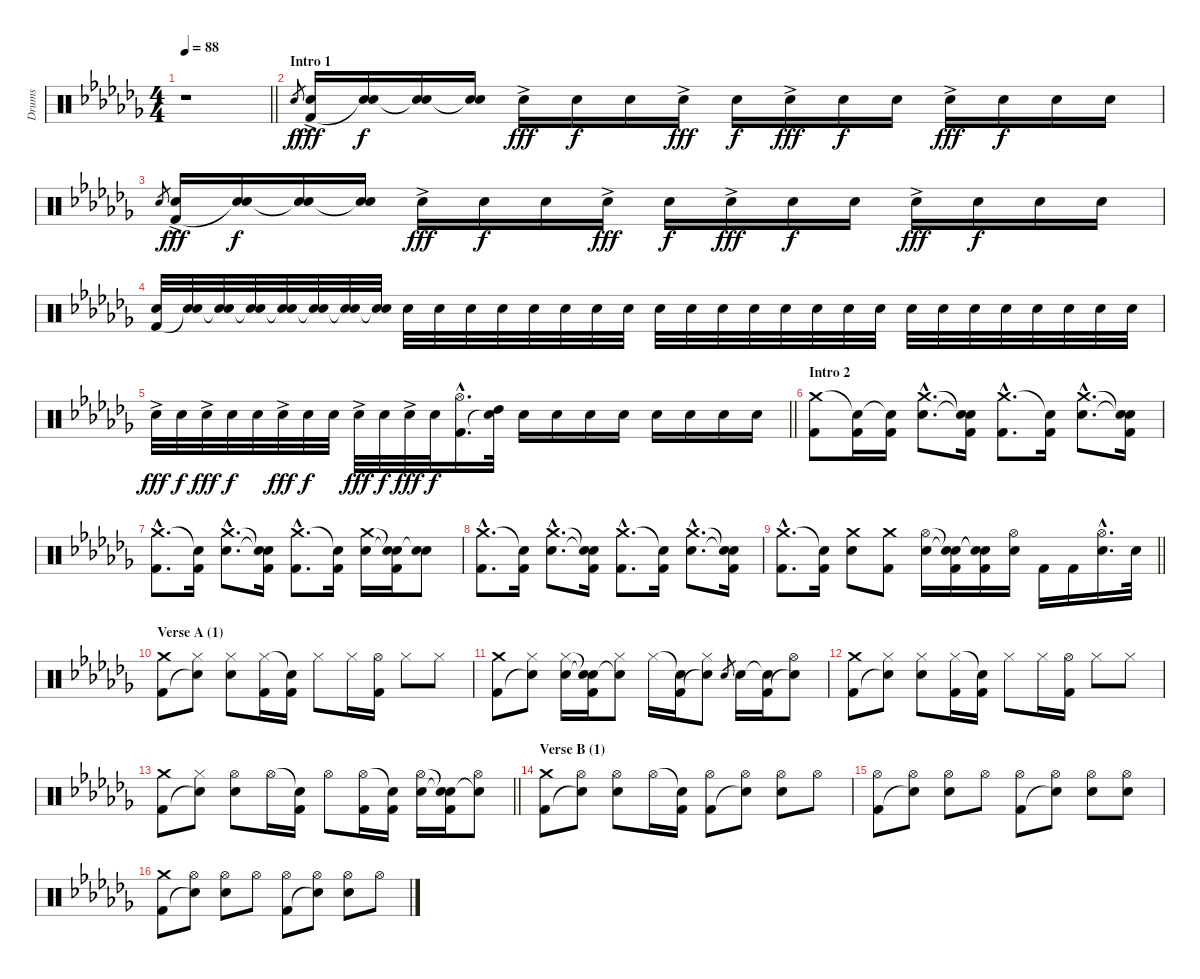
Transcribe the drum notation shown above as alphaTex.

\track ("Drums" "Drums") {instrument percussion}
\staff {score}
\articulation defaults
\ts (4 4)
\tempo 88
\clef neutral
\barLineRight lightlight
\ks abminor
r.1{dy f} |
\section ("" "Intro 1")
"Electric Snare (hit)".8{gr} ("Electric Snare (hit)"{ac} "Kick (hit) 2").16{dy fff} ("Electric Snare (hit)" "Snare (hit)"{t}).16{dy f} ("Electric Snare (hit)" "Snare (hit)"{t}).16 ("Electric Snare (hit)" "Snare (hit)"{t}).16 "Electric Snare (hit)"{ac}.16{dy fff} "Electric Snare (hit)".16{dy f} "Electric Snare (hit)".16 "Electric Snare (hit)"{ac}.16{dy fff} "Electric Snare (hit)".16{dy f} "Electric Snare (hit)"{ac}.16{dy fff} "Electric Snare (hit)".16{dy f} "Electric Snare (hit)".16 "Electric Snare (hit)"{ac}.16{dy fff} "Electric Snare (hit)".16{dy f} "Electric Snare (hit)".16 "Electric Snare (hit)".16 |
"Electric Snare (hit)".8{gr} ("Electric Snare (hit)"{ac} "Kick (hit) 2").16{dy fff} ("Electric Snare (hit)" "Snare (hit)"{t}).16{dy f} ("Electric Snare (hit)" "Snare (hit)"{t}).16 ("Electric Snare (hit)" "Snare (hit)"{t}).16 "Electric Snare (hit)"{ac}.16{dy fff} "Electric Snare (hit)".16{dy f} "Electric Snare (hit)".16 "Electric Snare (hit)"{ac}.16{dy fff} "Electric Snare (hit)".16{dy f} "Electric Snare (hit)"{ac}.16{dy fff} "Electric Snare (hit)".16{dy f} "Electric Snare (hit)".16 "Electric Snare (hit)"{ac}.16{dy fff} "Electric Snare (hit)".16{dy f} "Electric Snare (hit)".16 "Electric Snare (hit)".16 |
("Electric Snare (hit)" "Kick (hit) 2").32 ("Electric Snare (hit)" "Snare (hit)"{t}).32 ("Electric Snare (hit)" "Snare (hit)"{t}).32 ("Electric Snare (hit)" "Snare (hit)"{t}).32 ("Electric Snare (hit)" "Snare (hit)"{t}).32 ("Electric Snare (hit)" "Snare (hit)"{t}).32 ("Electric Snare (hit)" "Snare (hit)"{t}).32 ("Electric Snare (hit)" "Snare (hit)"{t}).32 "Electric Snare (hit)".32 "Electric Snare (hit)".32 "Electric Snare (hit)".32 "Electric Snare (hit)".32 "Electric Snare (hit)".32 "Electric Snare (hit)".32 "Electric Snare (hit)".32 "Electric Snare (hit)".32 "Electric Snare (hit)".32 "Electric Snare (hit)".32 "Electric Snare (hit)".32 "Electric Snare (hit)".32 "Electric Snare (hit)".32 "Electric Snare (hit)".32 "Electric Snare (hit)".32 "Electric Snare (hit)".32 "Electric Snare (hit)".32 "Electric Snare (hit)".32 "Electric Snare (hit)".32 "Electric Snare (hit)".32 "Electric Snare (hit)".32 "Electric Snare (hit)".32 "Electric Snare (hit)".32 "Electric Snare (hit)".32 |
\barLineRight lightlight "Electric Snare (hit)"{ac}.32{dy fff} "Electric Snare (hit)".32{dy f} "Electric Snare (hit)"{ac}.32{dy fff} "Electric Snare (hit)".32{dy f} "Electric Snare (hit)".32 "Electric Snare (hit)"{ac}.32{dy fff} "Electric Snare (hit)".32{dy f} "Electric Snare (hit)".32 "Electric Snare (hit)"{ac}.32{dy fff} "Electric Snare (hit)".32{dy f} "Electric Snare (hit)"{ac}.32{dy fff} "Electric Snare (hit)".32{dy f}
("Hi-Hat (open)"{hac} "Kick (hit) 2"{hac}).16{d} ("High Tom (hit)" "Snare (hit)"{t}).32 "Electric Snare (hit)".16 "Electric Snare (hit)".16 "Electric Snare (hit)".16 "Electric Snare (hit)".16 "Electric Snare (hit)".16 "Electric Snare (hit)".16 "Electric Snare (hit)".16 "Electric Snare (hit)".16 |
\section ("" "Intro 2")
("Crash medium (hit)" "Kick (hit) 2").8 ("Snare (hit)"{t} "Kick (hit) 2").16 ("Snare (hit)"{t} "Kick (hit) 2").16 ("Crash medium (hit)"{hac} "Electric Snare (hit)"{hac}).8{d} ("Snare (hit)"{t} "Snare (hit)"{t} "Kick (hit) 2").16 ("Crash medium (hit)"{hac} "Kick (hit) 2"{hac}).8{d} ("Snare (hit)"{t} "Kick (hit) 2").16 ("Crash medium (hit)"{hac} "Electric Snare (hit)"{hac}).8{d} ("Snare (hit)"{t} "Snare (hit)"{t} "Kick (hit) 2").16 |
("Crash medium (hit)"{hac} "Kick (hit) 2"{hac}).8{d} ("Snare (hit)"{t} "Kick (hit) 2").16 ("Crash medium (hit)"{hac} "Electric Snare (hit)"{hac}).8{d} ("Snare (hit)"{t} "Snare (hit)"{t} "Kick (hit) 2").16 ("Crash medium (hit)"{hac} "Kick (hit) 2"{hac}).8{d} ("Snare (hit)"{t} "Kick (hit) 2").16 ("Crash medium (hit)" "Electric Snare (hit)").16 ("Snare (hit)"{t} "Snare (hit)"{t} "Kick (hit) 2").16 ("Electric Snare (hit)" "Snare (hit)"{t}).8 |
("Crash medium (hit)"{hac} "Kick (hit) 2"{hac}).8{d} ("Snare (hit)"{t} "Kick (hit) 2").16 ("Crash medium (hit)"{hac} "Electric Snare (hit)"{hac}).8{d} ("Snare (hit)"{t} "Snare (hit)"{t} "Kick (hit) 2").16 ("Crash medium (hit)"{hac} "Kick (hit) 2"{hac}).8{d} ("Snare (hit)"{t} "Kick (hit) 2").16 ("Crash medium (hit)"{hac} "Electric Snare (hit)"{hac}).8{d} ("Snare (hit)"{t} "Snare (hit)"{t} "Kick (hit) 2").16 |
\barLineRight lightlight
("Crash medium (hit)"{hac} "Kick (hit) 2"{hac}).8{d} ("Snare (hit)"{t} "Kick (hit) 2").16 ("Crash medium (hit)" "Electric Snare (hit)").8 ("Crash medium (hit)" "Kick (hit) 2").8 ("Hi-Hat (open)" "Electric Snare (hit)").16 ("Snare (hit)"{t} "Snare (hit)"{t} "Kick (hit) 2").16 ("Snare (hit)"{t} "Snare (hit)"{t} "Kick (hit) 2").16 ("Hi-Hat (open)" "Electric Snare (hit)").16 "Kick (hit) 2".16 "Kick (hit) 2".16 ("Hi-Hat (open)"{hac} "Electric Snare (hit)"{hac}).16{d} "Electric Snare (hit)".32 |
\section ("" "Verse A (1)")
("Crash medium (hit)" "Kick (hit) 2").8 ("Hi-Hat (closed)" "Snare (hit)"{t}).8 ("Hi-Hat (closed)" "Electric Snare (hit)").8 ("Hi-Hat (closed)" "Kick (hit) 2").16 ("Snare (hit)"{t} "Kick (hit) 2").16 "Hi-Hat (closed)".8 "Hi-Hat (closed)".16 ("Hi-Hat (open)" "Kick (hit) 2").16 "Hi-Hat (closed)".8 "Hi-Hat (closed)".8 |
("Crash medium (hit)" "Kick (hit) 2").8 ("Hi-Hat (closed)" "Snare (hit)"{t}).8 ("Hi-Hat (closed)" "Electric Snare (hit)").16 ("Snare (hit)"{t} "Snare (hit)"{t} "Kick (hit) 2").16 ("Hi-Hat (closed)" "Snare (hit)"{t}).8 "Hi-Hat (closed)".16 ("Snare (hit)"{t} "Kick (hit) 2").16 ("Hi-Hat (closed)" "Snare (hit)"{t}).8 "Electric Snare (hit)".8{gr} "Electric Snare (hit)".16 ("Snare (hit)"{t} "Kick (hit) 2").16 ("Hi-Hat (open)" "Snare (hit)"{t}).8 |
("Crash medium (hit)" "Kick (hit) 2").8 ("Hi-Hat (closed)" "Snare (hit)"{t}).8 ("Hi-Hat (closed)" "Electric Snare (hit)").8 ("Hi-Hat (closed)" "Kick (hit) 2").16 ("Snare (hit)"{t} "Kick (hit) 2").16 "Hi-Hat (closed)".8 "Hi-Hat (closed)".16 ("Hi-Hat (open)" "Kick (hit) 2").16 "Hi-Hat (closed)".8 "Hi-Hat (closed)".8 |
\barLineRight lightlight
("Crash medium (hit)" "Kick (hit) 2").8 ("Hi-Hat (closed)" "Snare (hit)"{t}).8 ("Hi-Hat (open)" "Electric Snare (hit)").8 "Hi-Hat (open)".16 ("Snare (hit)"{t} "Kick (hit) 2").16 "Hi-Hat (open)".8 ("Hi-Hat (open)" "Kick (hit) 2").16 ("Snare (hit)"{t} "Kick (hit) 2").16 ("Hi-Hat (open)" "Electric Snare (hit)").16 ("Snare (hit)"{t} "Snare (hit)"{t} "Kick (hit) 2").16 ("Hi-Hat (open)" "Snare (hit)"{t}).8 |
\section ("" "Verse B (1)")
("Crash medium (hit)" "Kick (hit) 2").8 ("Hi-Hat (open)" "Snare (hit)"{t}).8 ("Hi-Hat (open)" "Electric Snare (hit)").8 "Hi-Hat (open)".16 ("Snare (hit)"{t} "Kick (hit) 2").16 ("Hi-Hat (open)" "Kick (hit) 2").8 ("Hi-Hat (open)" "Snare (hit)"{t}).8 ("Hi-Hat (open)" "Electric Snare (hit)").8 "Hi-Hat (open)".8 |
("Hi-Hat (open)" "Kick (hit) 2").8 ("Hi-Hat (open)" "Snare (hit)"{t}).8 ("Hi-Hat (open)" "Electric Snare (hit)").8 "Hi-Hat (open)".8 ("Hi-Hat (open)" "Kick (hit) 2").8 ("Hi-Hat (open)" "Snare (hit)"{t}).8 ("Hi-Hat (open)" "Electric Snare (hit)").8 ("Hi-Hat (open)" "Electric Snare (hit)").8 |
("Crash medium (hit)" "Kick (hit) 2").8 ("Hi-Hat (open)" "Snare (hit)"{t}).8 ("Hi-Hat (open)" "Electric Snare (hit)").8 "Hi-Hat (open)".8 ("Hi-Hat (open)" "Kick (hit) 2").8 ("Hi-Hat (open)" "Snare (hit)"{t}).8 ("Hi-Hat (open)" "Electric Snare (hit)").8 "Hi-Hat (open)".8
